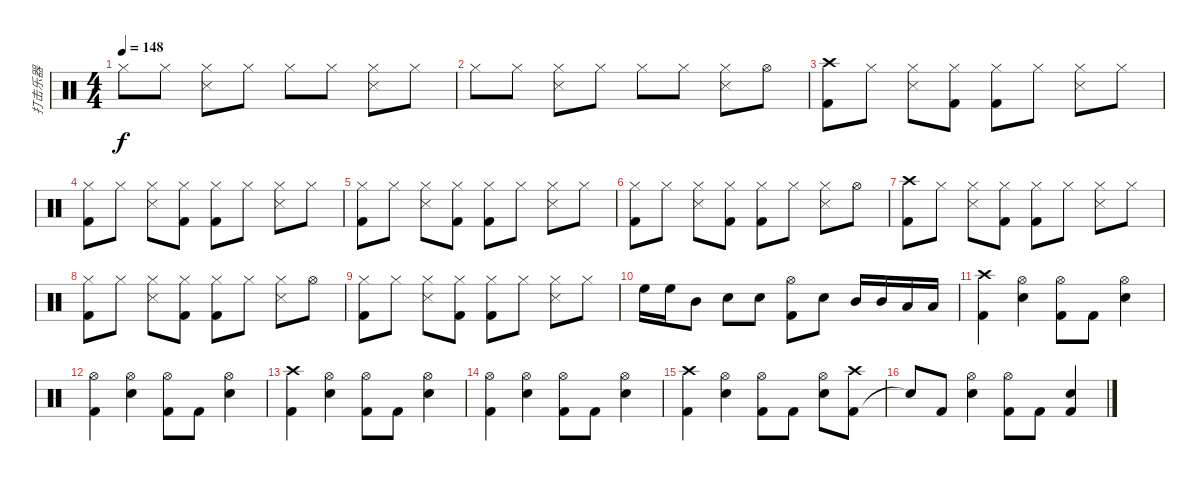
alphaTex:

\track ("打击乐器" "打击乐器") {instrument percussion}
\staff {score}
\articulation defaults
\ts (4 4)
\tempo 148
\clef neutral
\ks c "Hi-Hat (closed)".8{dy f} "Hi-Hat (closed)".8
("Hi-Hat (closed)" "Snare (side stick) 3").8 "Hi-Hat (closed)".8 "Hi-Hat (closed)".8 "Hi-Hat (closed)".8 ("Hi-Hat (closed)" "Snare (side stick) 3").8 "Hi-Hat (closed)".8 |
"Hi-Hat (closed)".8 "Hi-Hat (closed)".8 ("Hi-Hat (closed)" "Snare (side stick) 3").8 "Hi-Hat (closed)".8 "Hi-Hat (closed)".8 "Hi-Hat (closed)".8 ("Hi-Hat (closed)" "Snare (side stick) 3").8 "Hi-Hat (open)".8 |
("Crash high (hit)" "Kick (hit) 2").8 "Hi-Hat (closed)".8 ("Hi-Hat (closed)" "Snare (side stick) 3").8 ("Hi-Hat (closed)" "Kick (hit) 2").8 ("Hi-Hat (closed)" "Kick (hit) 2").8 "Hi-Hat (closed)".8 ("Hi-Hat (closed)" "Snare (side stick) 3").8 "Hi-Hat (closed)".8 |
("Hi-Hat (closed)" "Kick (hit) 2").8 "Hi-Hat (closed)".8 ("Hi-Hat (closed)" "Snare (side stick) 3").8 ("Hi-Hat (closed)" "Kick (hit) 2").8 ("Hi-Hat (closed)" "Kick (hit) 2").8 "Hi-Hat (closed)".8 ("Hi-Hat (closed)" "Snare (side stick) 3").8 "Hi-Hat (closed)".8 |
("Hi-Hat (closed)" "Kick (hit) 2").8 "Hi-Hat (closed)".8 ("Hi-Hat (closed)" "Snare (side stick) 3").8 ("Hi-Hat (closed)" "Kick (hit) 2").8 ("Hi-Hat (closed)" "Kick (hit) 2").8 "Hi-Hat (closed)".8 ("Hi-Hat (closed)" "Snare (side stick) 3").8 "Hi-Hat (closed)".8 |
("Hi-Hat (closed)" "Kick (hit) 2").8 "Hi-Hat (closed)".8 ("Hi-Hat (closed)" "Snare (side stick) 3").8 ("Hi-Hat (closed)" "Kick (hit) 2").8 ("Hi-Hat (closed)" "Kick (hit) 2").8 "Hi-Hat (closed)".8 ("Hi-Hat (closed)" "Snare (side stick) 3").8 "Hi-Hat (open)".8 |
("Crash high (hit)" "Kick (hit) 2").8 "Hi-Hat (closed)".8 ("Hi-Hat (closed)" "Snare (side stick) 3").8 ("Hi-Hat (closed)" "Kick (hit) 2").8 ("Hi-Hat (closed)" "Kick (hit) 2").8 "Hi-Hat (closed)".8 ("Hi-Hat (closed)" "Snare (side stick) 3").8 "Hi-Hat (closed)".8 |
("Hi-Hat (closed)" "Kick (hit) 2").8 "Hi-Hat (closed)".8 ("Hi-Hat (closed)" "Snare (side stick) 3").8 ("Hi-Hat (closed)" "Kick (hit) 2").8 ("Hi-Hat (closed)" "Kick (hit) 2").8 "Hi-Hat (closed)".8 ("Hi-Hat (closed)" "Snare (side stick) 3").8 "Hi-Hat (open)".8 |
("Hi-Hat (closed)" "Kick (hit) 2").8 "Hi-Hat (closed)".8 ("Hi-Hat (closed)" "Snare (side stick) 3").8 ("Hi-Hat (closed)" "Kick (hit) 2").8 ("Hi-Hat (closed)" "Kick (hit) 2").8 "Hi-Hat (closed)".8 ("Hi-Hat (closed)" "Snare (side stick) 3").8 "Hi-Hat (closed)".8 |
"High Floor Tom (hit)".16 "High Floor Tom (hit)".16 "Mid Tom (hit)".8 "Electric Snare (hit)".8 "Electric Snare (hit)".8 ("Kick (hit) 2" "Hi-Hat (open)").8 "Electric Snare (hit)".8 "Mid Tom (hit)".16 "Mid Tom (hit)".16 "Low Tom (hit)".16 "Low Tom (hit)".16 |
("Kick (hit) 2" "Crash high (hit)").4 ("Electric Snare (hit)" "Hi-Hat (open)").4 ("Kick (hit) 2" "Hi-Hat (open)").8 "Kick (hit) 2".8 ("Electric Snare (hit)" "Hi-Hat (open)").4 |
("Kick (hit) 2" "Hi-Hat (open)").4 ("Electric Snare (hit)" "Hi-Hat (open)").4 ("Kick (hit) 2" "Hi-Hat (open)").8 "Kick (hit) 2".8 ("Electric Snare (hit)" "Hi-Hat (open)").4 |
("Kick (hit) 2" "Crash high (hit)").4 ("Electric Snare (hit)" "Hi-Hat (open)").4 ("Kick (hit) 2" "Hi-Hat (open)").8 "Kick (hit) 2".8 ("Electric Snare (hit)" "Hi-Hat (open)").4 |
("Kick (hit) 2" "Hi-Hat (open)").4 ("Electric Snare (hit)" "Hi-Hat (open)").4 ("Kick (hit) 2" "Hi-Hat (open)").8 "Kick (hit) 2".8 ("Electric Snare (hit)" "Hi-Hat (open)").4 |
("Kick (hit) 2" "Crash high (hit)").4 ("Electric Snare (hit)" "Hi-Hat (open)").4 ("Kick (hit) 2" "Hi-Hat (open)").8 "Kick (hit) 2".8 ("Electric Snare (hit)" "Hi-Hat (open)").8 ("Kick (hit) 2" "Crash high (hit)").8 |
"Snare (hit)"{t}.8 "Kick (hit) 2".8 ("Electric Snare (hit)" "Hi-Hat (open)").4 ("Kick (hit) 2" "Hi-Hat (open)").8 "Kick (hit) 2".8 ("Electric Snare (hit)" "Kick (hit) 2").4
